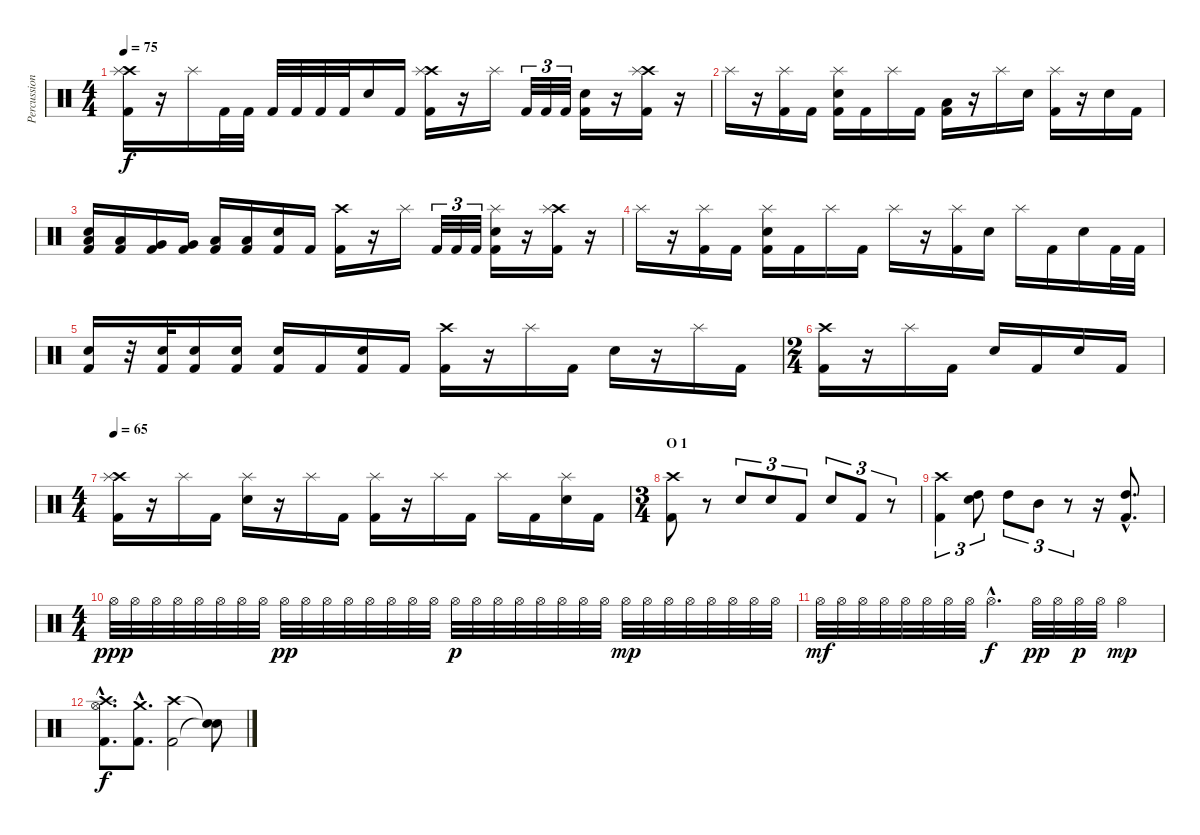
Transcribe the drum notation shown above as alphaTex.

\track ("Percussion" "Percussion") {instrument percussion}
\staff {score}
\articulation defaults
\ts (4 4)
\tempo 75
\clef neutral
\ks c
("Crash high (hit)" "Splash (hit)" "Kick (hit) 2").16{dy f} r.16 "Splash (hit)".16 "Kick (hit) 2".32 "Kick (hit) 2".32 "Kick (hit) 2".32 "Kick (hit) 2".32 "Kick (hit) 2".32 "Kick (hit) 2".32 "Snare (hit) 2".16 "Kick (hit) 2".16 ("Crash high (hit)" "Splash (hit)" "Kick (hit) 2").16 r.16 "Splash (hit)".16 "Kick (hit) 2".32{tu (3 2)} "Kick (hit) 2".32{tu (3 2)} "Kick (hit) 2".32{tu (3 2)} ("Snare (hit) 2" "Kick (hit) 2").16 r.16 ("Crash high (hit)" "Splash (hit)" "Kick (hit) 2").16 r.16 |
"Splash (hit)".16 r.16 ("Splash (hit)" "Kick (hit) 2").16 "Kick (hit) 2".16 ("Splash (hit)" "Snare (hit) 2" "Kick (hit) 2").16 "Kick (hit) 2".16 "Splash (hit)".16 "Kick (hit) 2".16 ("Low Floor Tom (hit)" "Kick (hit) 2").16 r.16 "Splash (hit)".16 "Snare (hit) 2".16 ("Splash (hit)" "Kick (hit) 2").16 r.16 "Snare (hit) 2".16 "Kick (hit) 2".16 |
("Snare (hit) 2" "Kick (hit) 2" "Low Tom (hit)").16 ("Kick (hit) 2" "Low Tom (hit)").16 ("Kick (hit) 2" "Very Low Tom (hit)").16 ("Kick (hit) 2" "Very Low Tom (hit)").16 ("Kick (hit) 2" "Low Floor Tom (hit)").16 ("Kick (hit) 2" "Low Floor Tom (hit)").16 ("Snare (hit) 2" "Kick (hit) 2").16 "Kick (hit) 2".16 ("Crash high (hit)" "Kick (hit) 2").16 r.16 "Splash (hit)".16 "Kick (hit) 2".32{tu (3 2)} "Kick (hit) 2".32{tu (3 2)} "Kick (hit) 2".32{tu (3 2)} ("Splash (hit)" "Snare (hit) 2" "Kick (hit) 2").16 r.16 ("Crash high (hit)" "Splash (hit)" "Kick (hit) 2").16 r.16 |
"Splash (hit)".16 r.16 ("Splash (hit)" "Kick (hit) 2").16 "Kick (hit) 2".16 ("Splash (hit)" "Snare (hit) 2" "Kick (hit) 2").16 "Kick (hit) 2".16 "Splash (hit)".16 "Kick (hit) 2".16 "Splash (hit)".16 r.16 ("Splash (hit)" "Kick (hit) 2").16 "Snare (hit) 2".16 "Splash (hit)".16 "Kick (hit) 2".16 "Snare (hit) 2".16 "Kick (hit) 2".32 "Kick (hit) 2".32 |
("Snare (hit) 2" "Kick (hit) 2").16 r.32 ("Snare (hit) 2" "Kick (hit) 2").32 ("Snare (hit) 2" "Kick (hit) 2").16 ("Snare (hit) 2" "Kick (hit) 2").16 ("Snare (hit) 2" "Kick (hit) 2").16 "Kick (hit) 2".16 ("Snare (hit) 2" "Kick (hit) 2").16 "Kick (hit) 2".16 ("Crash high (hit)" "Kick (hit) 2").16 r.16 "Splash (hit)".16 "Kick (hit) 2".16 "Snare (hit) 2".16 r.16 "Splash (hit)".16 "Kick (hit) 2".16 |
\ts (2 4)
("Crash high (hit)" "Kick (hit) 2").16 r.16 "Splash (hit)".16 "Kick (hit) 2".16 "Snare (hit) 2".16 "Kick (hit) 2".16 "Snare (hit) 2".16 "Kick (hit) 2".16 |
\ts (4 4)
\tempo 65
("Crash high (hit)" "Splash (hit)" "Kick (hit) 2").16 r.16 "Splash (hit)".16 "Kick (hit) 2".16 ("Splash (hit)" "Snare (hit) 2").16 r.16 "Splash (hit)".16 "Kick (hit) 2".16 ("Splash (hit)" "Kick (hit) 2").16 r.16 "Splash (hit)".16 "Kick (hit) 2".16 "Splash (hit)".16 "Kick (hit) 2".16 ("Splash (hit)" "Snare (hit) 2").16 "Kick (hit) 2".16 |
\ts (3 4)
\section ("" "O 1")
("Crash high (hit)" "Kick (hit) 2").8 r.8 "Snare (hit) 2".8{tu (3 2)} "Snare (hit) 2".8{tu (3 2)} "Kick (hit) 2".8{tu (3 2)} "Snare (hit) 2".8{tu (3 2)} "Kick (hit) 2".8{tu (3 2)} r.8{tu (3 2)} |
("Crash high (hit)" "Kick (hit) 2").4{tu (3 2)} ("Snare (hit) 2" "High Tom (hit)").8{tu (3 2)} "High Tom (hit)".8{tu (3 2)} "Mid Tom (hit)".8{tu (3 2)} r.8{tu (3 2)} r.16 ("High Tom (hit)"{hac} "Kick (hit) 2"{hac}).8{d} |
\ts (4 4)
"Hi-Hat (open)".32{dy ppp} "Hi-Hat (open)".32 "Hi-Hat (open)".32 "Hi-Hat (open)".32 "Hi-Hat (open)".32 "Hi-Hat (open)".32 "Hi-Hat (open)".32 "Hi-Hat (open)".32 "Hi-Hat (open)".32{dy pp} "Hi-Hat (open)".32 "Hi-Hat (open)".32 "Hi-Hat (open)".32 "Hi-Hat (open)".32 "Hi-Hat (open)".32 "Hi-Hat (open)".32 "Hi-Hat (open)".32 "Hi-Hat (open)".32{dy p} "Hi-Hat (open)".32 "Hi-Hat (open)".32 "Hi-Hat (open)".32 "Hi-Hat (open)".32 "Hi-Hat (open)".32 "Hi-Hat (open)".32 "Hi-Hat (open)".32 "Hi-Hat (open)".32{dy mp} "Hi-Hat (open)".32 "Hi-Hat (open)".32 "Hi-Hat (open)".32 "Hi-Hat (open)".32 "Hi-Hat (open)".32 "Hi-Hat (open)".32 "Hi-Hat (open)".32 |
"Hi-Hat (open)".32{dy mf} "Hi-Hat (open)".32 "Hi-Hat (open)".32 "Hi-Hat (open)".32 "Hi-Hat (open)".32 "Hi-Hat (open)".32 "Hi-Hat (open)".32 "Hi-Hat (open)".32 "Hi-Hat (open)"{hac}.4{d dy f} "Hi-Hat (open)".32{dy pp} "Hi-Hat (open)".32 "Hi-Hat (open)".32{dy p} "Hi-Hat (open)".32 "Hi-Hat (open)".4{dy mp} |
("Hi-Hat (open)"{hac} "Crash high (hit)"{hac} "Kick (hit) 2"{hac}).8{d dy f} ("Crash medium (hit)"{hac} "Kick (hit) 2"{hac}).8{d} ("Crash high (hit)" "Kick (hit) 2").2 ("Snare (hit)"{t} "Snare (hit)"{t}).8
